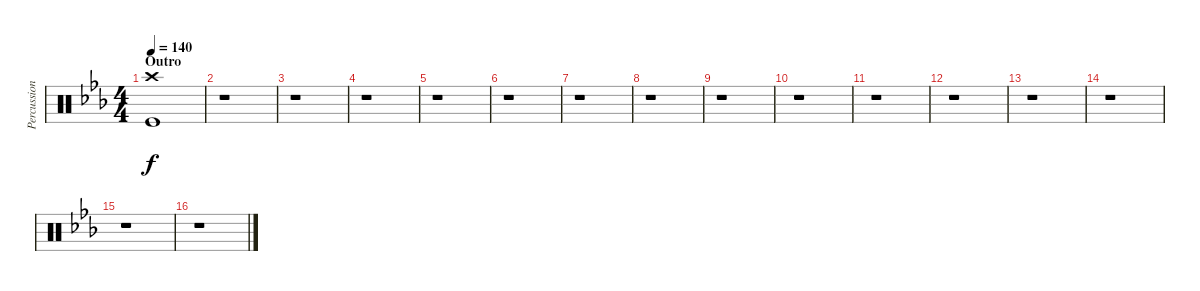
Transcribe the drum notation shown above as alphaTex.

\track ("Percussion" "Percussion") {instrument percussion}
\staff {score}
\articulation defaults
\ts (4 4)
\section ("" "Outro")
\tempo 140
\clef neutral
\ks eb
("Crash high (hit)" "Kick (hit)").1{dy f} |
r.1 |
r.1 |
r.1 |
r.1 |
r.1 |
r.1 |
r.1 |
r.1 |
r.1 |
r.1 |
r.1 |
r.1 |
r.1 |
r.1 |
r.1
